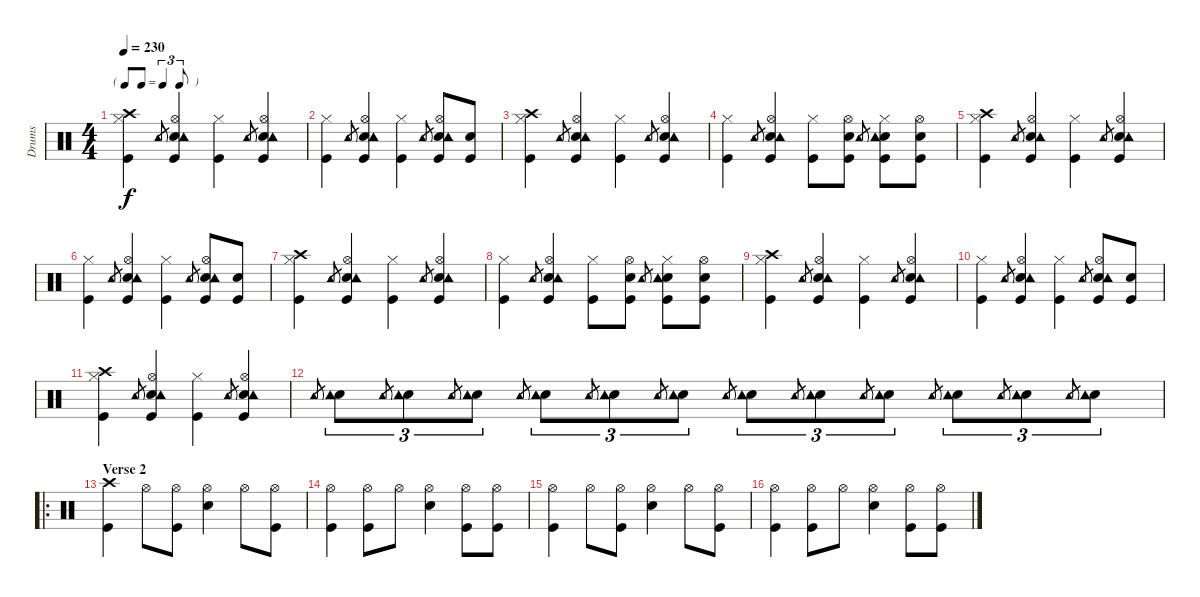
\track ("Drums" "Drums") {instrument percussion}
\staff {score}
\articulation defaults
\ts (4 4)
\tf triplet8th
\tempo 230
\clef neutral
\ks c
("Crash high (hit)" "Hi-Hat (closed)" "Kick (hit)").4{dy f} "Tambourine (hit)".8{gr} ("Hi-Hat (open)" "Electric Snare (hit)" "Kick (hit)" "Tambourine (hit)").4 ("Hi-Hat (closed)" "Kick (hit)").4 "Tambourine (hit)".8{gr} ("Hi-Hat (open)" "Electric Snare (hit)" "Kick (hit)" "Tambourine (hit)").4 |
("Hi-Hat (closed)" "Kick (hit)").4 "Tambourine (hit)".8{gr} ("Hi-Hat (open)" "Electric Snare (hit)" "Kick (hit)" "Tambourine (hit)").4 ("Hi-Hat (closed)" "Kick (hit)").4 "Tambourine (hit)".8{gr} ("Hi-Hat (open)" "Electric Snare (hit)" "Kick (hit)" "Tambourine (hit)").8 ("Electric Snare (hit)" "Kick (hit)").8 |
("Crash high (hit)" "Hi-Hat (closed)" "Kick (hit)").4 "Tambourine (hit)".8{gr} ("Hi-Hat (open)" "Electric Snare (hit)" "Kick (hit)" "Tambourine (hit)").4 ("Hi-Hat (closed)" "Kick (hit)").4 "Tambourine (hit)".8{gr} ("Hi-Hat (open)" "Electric Snare (hit)" "Kick (hit)" "Tambourine (hit)").4 |
("Hi-Hat (closed)" "Kick (hit)").4 "Tambourine (hit)".8{gr} ("Hi-Hat (open)" "Electric Snare (hit)" "Kick (hit)" "Tambourine (hit)").4 ("Hi-Hat (closed)" "Kick (hit)").8 ("Hi-Hat (open)" "Electric Snare (hit)" "Kick (hit)").8 "Tambourine (hit)".8{gr} ("Hi-Hat (closed)" "Electric Snare (hit)" "Kick (hit)" "Tambourine (hit)").8 ("Hi-Hat (open)" "Electric Snare (hit)" "Kick (hit)").8 |
("Crash high (hit)" "Hi-Hat (closed)" "Kick (hit)").4 "Tambourine (hit)".8{gr} ("Hi-Hat (open)" "Electric Snare (hit)" "Kick (hit)" "Tambourine (hit)").4 ("Hi-Hat (closed)" "Kick (hit)").4 "Tambourine (hit)".8{gr} ("Hi-Hat (open)" "Electric Snare (hit)" "Kick (hit)" "Tambourine (hit)").4 |
("Hi-Hat (closed)" "Kick (hit)").4 "Tambourine (hit)".8{gr} ("Hi-Hat (open)" "Electric Snare (hit)" "Kick (hit)" "Tambourine (hit)").4 ("Hi-Hat (closed)" "Kick (hit)").4 "Tambourine (hit)".8{gr} ("Hi-Hat (open)" "Electric Snare (hit)" "Kick (hit)" "Tambourine (hit)").8 ("Electric Snare (hit)" "Kick (hit)").8 |
("Crash high (hit)" "Hi-Hat (closed)" "Kick (hit)").4 "Tambourine (hit)".8{gr} ("Hi-Hat (open)" "Electric Snare (hit)" "Kick (hit)" "Tambourine (hit)").4 ("Hi-Hat (closed)" "Kick (hit)").4 "Tambourine (hit)".8{gr} ("Hi-Hat (open)" "Electric Snare (hit)" "Kick (hit)" "Tambourine (hit)").4 |
("Hi-Hat (closed)" "Kick (hit)").4 "Tambourine (hit)".8{gr} ("Hi-Hat (open)" "Electric Snare (hit)" "Kick (hit)" "Tambourine (hit)").4 ("Hi-Hat (closed)" "Kick (hit)").8 ("Hi-Hat (open)" "Electric Snare (hit)" "Kick (hit)").8 "Tambourine (hit)".8{gr} ("Hi-Hat (closed)" "Electric Snare (hit)" "Kick (hit)" "Tambourine (hit)").8 ("Hi-Hat (open)" "Electric Snare (hit)" "Kick (hit)").8 |
("Crash high (hit)" "Hi-Hat (closed)" "Kick (hit)").4 "Tambourine (hit)".8{gr} ("Hi-Hat (open)" "Electric Snare (hit)" "Kick (hit)" "Tambourine (hit)").4 ("Hi-Hat (closed)" "Kick (hit)").4 "Tambourine (hit)".8{gr} ("Hi-Hat (open)" "Electric Snare (hit)" "Kick (hit)" "Tambourine (hit)").4 |
("Hi-Hat (closed)" "Kick (hit)").4 "Tambourine (hit)".8{gr} ("Hi-Hat (open)" "Electric Snare (hit)" "Kick (hit)" "Tambourine (hit)").4 ("Hi-Hat (closed)" "Kick (hit)").4 "Tambourine (hit)".8{gr} ("Hi-Hat (open)" "Electric Snare (hit)" "Kick (hit)" "Tambourine (hit)").8 ("Electric Snare (hit)" "Kick (hit)").8 |
("Crash high (hit)" "Hi-Hat (closed)" "Kick (hit)").4 "Tambourine (hit)".8{gr} ("Hi-Hat (open)" "Electric Snare (hit)" "Kick (hit)" "Tambourine (hit)").4 ("Hi-Hat (closed)" "Kick (hit)").4 "Tambourine (hit)".8{gr} ("Hi-Hat (open)" "Electric Snare (hit)" "Kick (hit)" "Tambourine (hit)").4 |
"Tambourine (hit)".8{gr} ("Electric Snare (hit)" "Tambourine (hit)").8{tu (3 2)} "Tambourine (hit)".8{gr} ("Electric Snare (hit)" "Tambourine (hit)").8{tu (3 2)} "Tambourine (hit)".8{gr} ("Electric Snare (hit)" "Tambourine (hit)").8{tu (3 2)} "Tambourine (hit)".8{gr} ("Electric Snare (hit)" "Tambourine (hit)").8{tu (3 2)} "Tambourine (hit)".8{gr} ("Electric Snare (hit)" "Tambourine (hit)").8{tu (3 2)} "Tambourine (hit)".8{gr} ("Electric Snare (hit)" "Tambourine (hit)").8{tu (3 2)} "Tambourine (hit)".8{gr} ("Electric Snare (hit)" "Tambourine (hit)").8{tu (3 2)} "Tambourine (hit)".8{gr} ("Electric Snare (hit)" "Tambourine (hit)").8{tu (3 2)} "Tambourine (hit)".8{gr} ("Electric Snare (hit)" "Tambourine (hit)").8{tu (3 2)} "Tambourine (hit)".8{gr} ("Electric Snare (hit)" "Tambourine (hit)").8{tu (3 2)} "Tambourine (hit)".8{gr} ("Electric Snare (hit)" "Tambourine (hit)").8{tu (3 2)} "Tambourine (hit)".8{gr} ("Electric Snare (hit)" "Tambourine (hit)").8{tu (3 2)} |
\ro
\section ("" "Verse 2")
("Crash high (hit)" "Kick (hit)").4 "Hi-Hat (open)".8 ("Hi-Hat (open)" "Kick (hit)").8 ("Hi-Hat (open)" "Electric Snare (hit)").4 "Hi-Hat (open)".8 ("Hi-Hat (open)" "Kick (hit)").8 |
("Hi-Hat (open)" "Kick (hit)").4 ("Hi-Hat (open)" "Kick (hit)").8 "Hi-Hat (open)".8 ("Hi-Hat (open)" "Electric Snare (hit)").4 ("Hi-Hat (open)" "Kick (hit)").8 ("Hi-Hat (open)" "Kick (hit)").8 |
("Hi-Hat (open)" "Kick (hit)").4 "Hi-Hat (open)".8 ("Hi-Hat (open)" "Kick (hit)").8 ("Hi-Hat (open)" "Electric Snare (hit)").4 "Hi-Hat (open)".8 ("Hi-Hat (open)" "Kick (hit)").8 |
("Hi-Hat (open)" "Kick (hit)").4 ("Hi-Hat (open)" "Kick (hit)").8 "Hi-Hat (open)".8 ("Hi-Hat (open)" "Electric Snare (hit)").4 ("Hi-Hat (open)" "Kick (hit)").8 ("Hi-Hat (open)" "Kick (hit)").8
